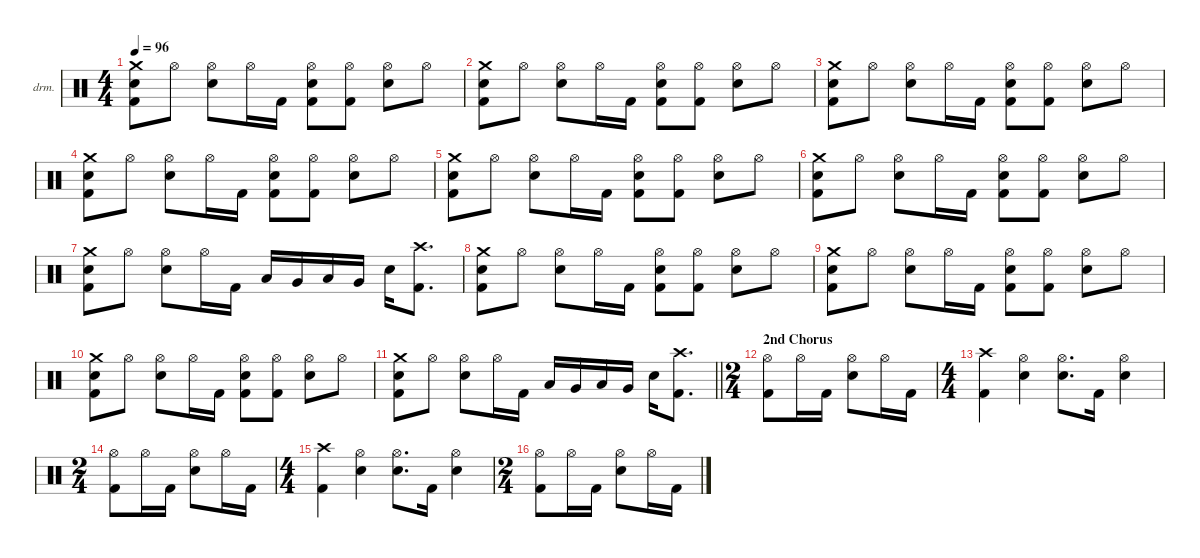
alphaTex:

\defaultSystemsLayout 4
\hideDynamics
\bracketExtendMode nobrackets
\firstSystemTrackNameOrientation horizontal
\otherSystemsTrackNameOrientation horizontal
\track ("Percussion" "drm.") {instrument percussion}
\staff {score}
\articulation defaults
\ts (4 4)
\tempo 96
\clef neutral
\ks c
("Crash medium (hit)" "Snare (hit) 2" "Kick (hit) 2").8{dy f} "Hi-Hat (open)".8 ("Hi-Hat (open)" "Snare (hit) 2").8 "Hi-Hat (open)".16 "Kick (hit) 2".16 ("Hi-Hat (open)" "Snare (hit) 2" "Kick (hit) 2").8 ("Hi-Hat (open)" "Kick (hit) 2").8 ("Hi-Hat (open)" "Snare (hit) 2").8 "Hi-Hat (open)".8 |
("Crash medium (hit)" "Snare (hit) 2" "Kick (hit) 2").8 "Hi-Hat (open)".8 ("Hi-Hat (open)" "Snare (hit) 2").8 "Hi-Hat (open)".16 "Kick (hit) 2".16 ("Hi-Hat (open)" "Snare (hit) 2" "Kick (hit) 2").8 ("Hi-Hat (open)" "Kick (hit) 2").8 ("Hi-Hat (open)" "Snare (hit) 2").8 "Hi-Hat (open)".8 |
("Crash medium (hit)" "Snare (hit) 2" "Kick (hit) 2").8 "Hi-Hat (open)".8 ("Hi-Hat (open)" "Snare (hit) 2").8 "Hi-Hat (open)".16 "Kick (hit) 2".16 ("Hi-Hat (open)" "Snare (hit) 2" "Kick (hit) 2").8 ("Hi-Hat (open)" "Kick (hit) 2").8 ("Hi-Hat (open)" "Snare (hit) 2").8 "Hi-Hat (open)".8 |
("Crash medium (hit)" "Snare (hit) 2" "Kick (hit) 2").8 "Hi-Hat (open)".8 ("Hi-Hat (open)" "Snare (hit) 2").8 "Hi-Hat (open)".16 "Kick (hit) 2".16 ("Hi-Hat (open)" "Snare (hit) 2" "Kick (hit) 2").8 ("Hi-Hat (open)" "Kick (hit) 2").8 ("Hi-Hat (open)" "Snare (hit) 2").8 "Hi-Hat (open)".8 |
("Crash medium (hit)" "Snare (hit) 2" "Kick (hit) 2").8 "Hi-Hat (open)".8 ("Hi-Hat (open)" "Snare (hit) 2").8 "Hi-Hat (open)".16 "Kick (hit) 2".16 ("Hi-Hat (open)" "Snare (hit) 2" "Kick (hit) 2").8 ("Hi-Hat (open)" "Kick (hit) 2").8 ("Hi-Hat (open)" "Snare (hit) 2").8 "Hi-Hat (open)".8 |
("Crash medium (hit)" "Snare (hit) 2" "Kick (hit) 2").8 "Hi-Hat (open)".8 ("Hi-Hat (open)" "Snare (hit) 2").8 "Hi-Hat (open)".16 "Kick (hit) 2".16 ("Hi-Hat (open)" "Snare (hit) 2" "Kick (hit) 2").8 ("Hi-Hat (open)" "Kick (hit) 2").8 ("Hi-Hat (open)" "Snare (hit) 2").8 "Hi-Hat (open)".8 |
("Crash medium (hit)" "Snare (hit) 2" "Kick (hit) 2").8 "Hi-Hat (open)".8 ("Hi-Hat (open)" "Snare (hit) 2").8 "Hi-Hat (open)".16 "Kick (hit) 2".16 "Low Tom (hit)".16 "Very Low Tom (hit)".16 "Low Tom (hit)".16 "Very Low Tom (hit)".16 "Snare (hit) 2".16 ("Crash high (hit)" "Kick (hit) 2").8{d} |
("Crash medium (hit)" "Snare (hit) 2" "Kick (hit) 2").8 "Hi-Hat (open)".8 ("Hi-Hat (open)" "Snare (hit) 2").8 "Hi-Hat (open)".16 "Kick (hit) 2".16 ("Hi-Hat (open)" "Snare (hit) 2" "Kick (hit) 2").8 ("Hi-Hat (open)" "Kick (hit) 2").8 ("Hi-Hat (open)" "Snare (hit) 2").8 "Hi-Hat (open)".8 |
("Crash medium (hit)" "Snare (hit) 2" "Kick (hit) 2").8 "Hi-Hat (open)".8 ("Hi-Hat (open)" "Snare (hit) 2").8 "Hi-Hat (open)".16 "Kick (hit) 2".16 ("Hi-Hat (open)" "Snare (hit) 2" "Kick (hit) 2").8 ("Hi-Hat (open)" "Kick (hit) 2").8 ("Hi-Hat (open)" "Snare (hit) 2").8 "Hi-Hat (open)".8 |
("Crash medium (hit)" "Snare (hit) 2" "Kick (hit) 2").8 "Hi-Hat (open)".8 ("Hi-Hat (open)" "Snare (hit) 2").8 "Hi-Hat (open)".16 "Kick (hit) 2".16 ("Hi-Hat (open)" "Snare (hit) 2" "Kick (hit) 2").8 ("Hi-Hat (open)" "Kick (hit) 2").8 ("Hi-Hat (open)" "Snare (hit) 2").8 "Hi-Hat (open)".8 |
\barLineRight lightlight
("Crash medium (hit)" "Snare (hit) 2" "Kick (hit) 2").8 "Hi-Hat (open)".8 ("Hi-Hat (open)" "Snare (hit) 2").8 "Hi-Hat (open)".16 "Kick (hit) 2".16 "Low Tom (hit)".16 "Very Low Tom (hit)".16 "Low Tom (hit)".16 "Very Low Tom (hit)".16 "Snare (hit) 2".16 ("Crash high (hit)" "Kick (hit) 2").8{d} |
\ts (2 4)
\beaming (8 2 2)
\section ("" "2nd Chorus")
("Hi-Hat (open)" "Kick (hit) 2").8 "Hi-Hat (open)".16 "Kick (hit) 2".16 ("Hi-Hat (open)" "Snare (hit) 2").8 "Hi-Hat (open)".16 "Kick (hit) 2".16 |
\ts (4 4)
\beaming (8 2 2 2 2)
("Crash high (hit)" "Kick (hit) 2").4 ("Hi-Hat (open)" "Snare (hit) 2").4 ("Hi-Hat (open)" "Snare (hit) 2").8{d} "Kick (hit) 2".16 ("Hi-Hat (open)" "Snare (hit) 2").4 |
\ts (2 4)
\beaming (8 2 2)
("Hi-Hat (open)" "Kick (hit) 2").8 "Hi-Hat (open)".16 "Kick (hit) 2".16 ("Hi-Hat (open)" "Snare (hit) 2").8 "Hi-Hat (open)".16 "Kick (hit) 2".16 |
\ts (4 4)
\beaming (8 2 2 2 2)
("Crash high (hit)" "Kick (hit) 2").4 ("Hi-Hat (open)" "Snare (hit) 2").4 ("Hi-Hat (open)" "Snare (hit) 2").8{d} "Kick (hit) 2".16 ("Hi-Hat (open)" "Snare (hit) 2").4 |
\ts (2 4)
\beaming (8 2 2)
("Hi-Hat (open)" "Kick (hit) 2").8 "Hi-Hat (open)".16 "Kick (hit) 2".16 ("Hi-Hat (open)" "Snare (hit) 2").8 "Hi-Hat (open)".16 "Kick (hit) 2".16
